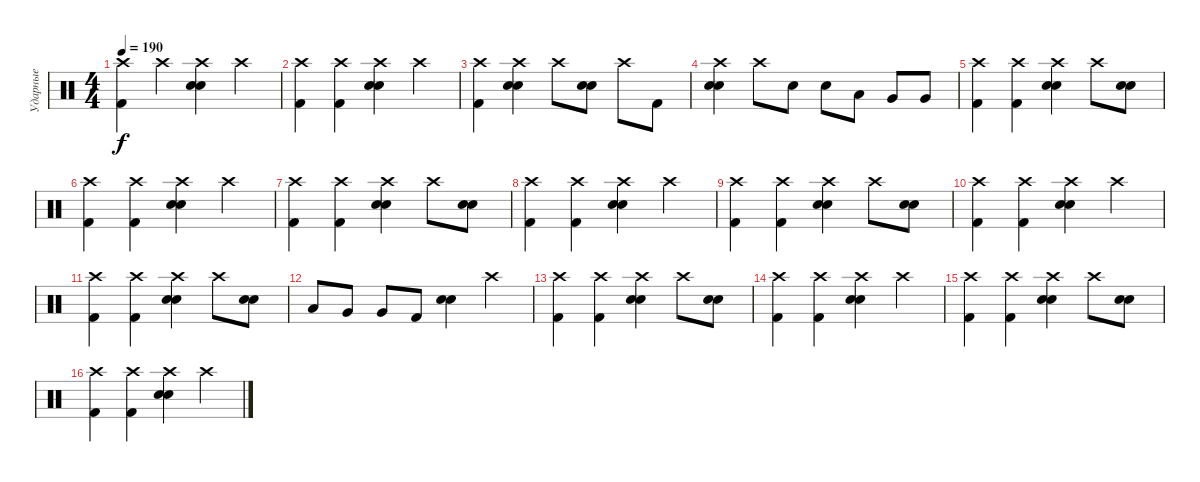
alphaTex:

\track ("Ударные" "Ударные") {instrument percussion}
\staff {score}
\articulation defaults
\ts (4 4)
\tempo 190
\clef neutral
\ks c
("Crash high (hit)" "Kick (hit) 2").4{dy f} "Crash high (hit)".4 ("Crash high (hit)" "Electric Snare (hit)" "Snare (hit) 2").4 "Crash high (hit)".4 |
("Crash high (hit)" "Kick (hit) 2").4 ("Crash high (hit)" "Kick (hit) 2").4 ("Crash high (hit)" "Electric Snare (hit)" "Snare (hit) 2").4 "Crash high (hit)".4 |
("Crash high (hit)" "Kick (hit) 2").4 ("Crash high (hit)" "Electric Snare (hit)" "Snare (hit) 2").4 "Crash high (hit)".8 ("Electric Snare (hit)" "Snare (hit) 2").8 "Crash high (hit)".8 "Kick (hit) 2".8 |
("Crash high (hit)" "Electric Snare (hit)" "Snare (hit) 2").4 "Crash high (hit)".8 "Electric Snare (hit)".8 "Electric Snare (hit)".8 "Low Tom (hit)".8 "Very Low Tom (hit)".8 "Very Low Tom (hit)".8 |
("Crash high (hit)" "Kick (hit) 2").4 ("Crash high (hit)" "Kick (hit) 2").4 ("Crash high (hit)" "Electric Snare (hit)" "Snare (hit) 2").4 "Crash high (hit)".8 ("Electric Snare (hit)" "Snare (hit) 2").8 |
("Crash high (hit)" "Kick (hit) 2").4 ("Crash high (hit)" "Kick (hit) 2").4 ("Crash high (hit)" "Electric Snare (hit)" "Snare (hit) 2").4 "Crash high (hit)".4 |
("Crash high (hit)" "Kick (hit) 2").4 ("Crash high (hit)" "Kick (hit) 2").4 ("Crash high (hit)" "Electric Snare (hit)" "Snare (hit) 2").4 "Crash high (hit)".8 ("Electric Snare (hit)" "Snare (hit) 2").8 |
("Crash high (hit)" "Kick (hit) 2").4 ("Crash high (hit)" "Kick (hit) 2").4 ("Crash high (hit)" "Electric Snare (hit)" "Snare (hit) 2").4 "Crash high (hit)".4 |
("Crash high (hit)" "Kick (hit) 2").4 ("Crash high (hit)" "Kick (hit) 2").4 ("Crash high (hit)" "Electric Snare (hit)" "Snare (hit) 2").4 "Crash high (hit)".8 ("Electric Snare (hit)" "Snare (hit) 2").8 |
("Crash high (hit)" "Kick (hit) 2").4 ("Crash high (hit)" "Kick (hit) 2").4 ("Crash high (hit)" "Electric Snare (hit)" "Snare (hit) 2").4 "Crash high (hit)".4 |
("Crash high (hit)" "Kick (hit) 2").4 ("Crash high (hit)" "Kick (hit) 2").4 ("Crash high (hit)" "Electric Snare (hit)" "Snare (hit) 2").4 "Crash high (hit)".8 ("Electric Snare (hit)" "Snare (hit) 2").8 |
"Low Tom (hit)".8 "Very Low Tom (hit)".8 "Very Low Tom (hit)".8 "Kick (hit) 2".8 ("Electric Snare (hit)" "Snare (hit) 2").4 "Crash high (hit)".4 |
("Crash high (hit)" "Kick (hit) 2").4 ("Crash high (hit)" "Kick (hit) 2").4 ("Crash high (hit)" "Electric Snare (hit)" "Snare (hit) 2").4 "Crash high (hit)".8 ("Electric Snare (hit)" "Snare (hit) 2").8 |
("Crash high (hit)" "Kick (hit) 2").4 ("Crash high (hit)" "Kick (hit) 2").4 ("Crash high (hit)" "Electric Snare (hit)" "Snare (hit) 2").4 "Crash high (hit)".4 |
("Crash high (hit)" "Kick (hit) 2").4 ("Crash high (hit)" "Kick (hit) 2").4 ("Crash high (hit)" "Electric Snare (hit)" "Snare (hit) 2").4 "Crash high (hit)".8 ("Electric Snare (hit)" "Snare (hit) 2").8 |
("Crash high (hit)" "Kick (hit) 2").4 ("Crash high (hit)" "Kick (hit) 2").4 ("Crash high (hit)" "Electric Snare (hit)" "Snare (hit) 2").4 "Crash high (hit)".4
